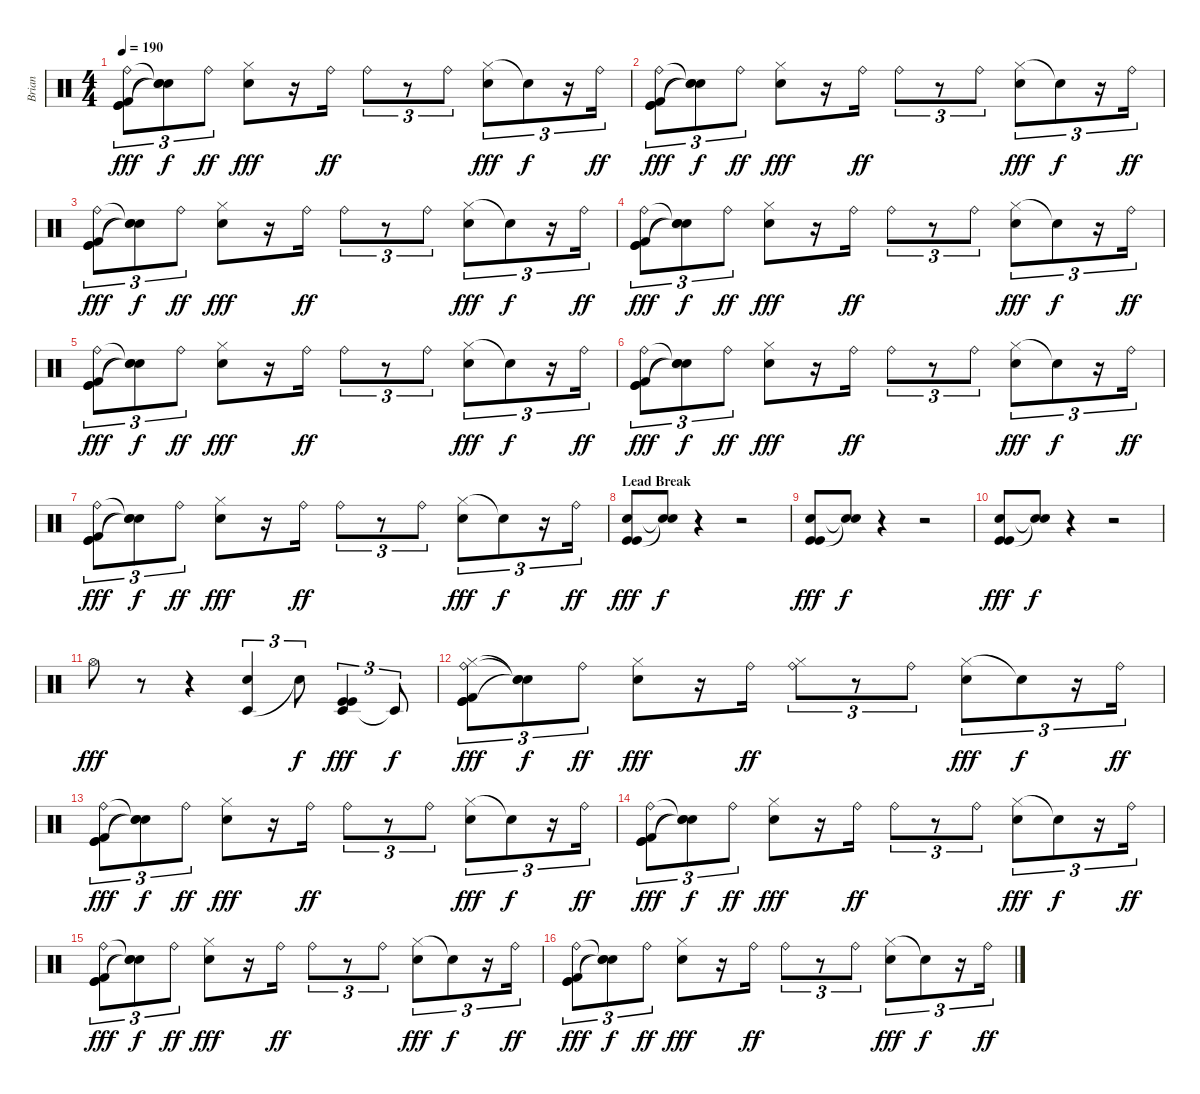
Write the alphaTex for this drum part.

\track ("Brian" "Brian") {instrument percussion}
\staff {score}
\articulation defaults
\ts (4 4)
\tempo 190
\clef neutral
\ks c
("Ride (bell)" "Kick (hit)" "Kick (hit) 2" "Kick (hit)").8{tu (3 2) dy fff} ("Snare (hit)"{t} "Snare (hit)"{t} "Snare (hit)"{t}).8{tu (3 2) dy f} "Ride (bell)".8{tu (3 2) dy ff} ("Hi-Hat (closed)" "Electric Snare (hit)").8{dy fff} r.16 "Ride (bell)".16{dy ff} "Ride (bell)".8{tu (3 2)} r.8{tu (3 2)} "Ride (bell)".8{tu (3 2)} ("Hi-Hat (closed)" "Electric Snare (hit)").8{tu (3 2) dy fff} "Snare (hit)"{t}.8{tu (3 2) dy f} r.16{tu (3 2)} "Ride (bell)".16{tu (3 2) dy ff} |
("Ride (bell)" "Kick (hit)" "Kick (hit) 2" "Kick (hit)").8{tu (3 2) dy fff} ("Snare (hit)"{t} "Snare (hit)"{t} "Snare (hit)"{t}).8{tu (3 2) dy f} "Ride (bell)".8{tu (3 2) dy ff} ("Hi-Hat (closed)" "Electric Snare (hit)").8{dy fff} r.16 "Ride (bell)".16{dy ff} "Ride (bell)".8{tu (3 2)} r.8{tu (3 2)} "Ride (bell)".8{tu (3 2)} ("Hi-Hat (closed)" "Electric Snare (hit)").8{tu (3 2) dy fff} "Snare (hit)"{t}.8{tu (3 2) dy f} r.16{tu (3 2)} "Ride (bell)".16{tu (3 2) dy ff} |
("Ride (bell)" "Kick (hit)" "Kick (hit) 2" "Kick (hit)").8{tu (3 2) dy fff} ("Snare (hit)"{t} "Snare (hit)"{t} "Snare (hit)"{t}).8{tu (3 2) dy f} "Ride (bell)".8{tu (3 2) dy ff} ("Hi-Hat (closed)" "Electric Snare (hit)").8{dy fff} r.16 "Ride (bell)".16{dy ff} "Ride (bell)".8{tu (3 2)} r.8{tu (3 2)} "Ride (bell)".8{tu (3 2)} ("Hi-Hat (closed)" "Electric Snare (hit)").8{tu (3 2) dy fff} "Snare (hit)"{t}.8{tu (3 2) dy f} r.16{tu (3 2)} "Ride (bell)".16{tu (3 2) dy ff} |
("Ride (bell)" "Kick (hit)" "Kick (hit) 2" "Kick (hit)").8{tu (3 2) dy fff} ("Snare (hit)"{t} "Snare (hit)"{t} "Snare (hit)"{t}).8{tu (3 2) dy f} "Ride (bell)".8{tu (3 2) dy ff} ("Hi-Hat (closed)" "Electric Snare (hit)").8{dy fff} r.16 "Ride (bell)".16{dy ff} "Ride (bell)".8{tu (3 2)} r.8{tu (3 2)} "Ride (bell)".8{tu (3 2)} ("Hi-Hat (closed)" "Electric Snare (hit)").8{tu (3 2) dy fff} "Snare (hit)"{t}.8{tu (3 2) dy f} r.16{tu (3 2)} "Ride (bell)".16{tu (3 2) dy ff} |
("Ride (bell)" "Kick (hit)" "Kick (hit) 2" "Kick (hit)").8{tu (3 2) dy fff} ("Snare (hit)"{t} "Snare (hit)"{t} "Snare (hit)"{t}).8{tu (3 2) dy f} "Ride (bell)".8{tu (3 2) dy ff} ("Hi-Hat (closed)" "Electric Snare (hit)").8{dy fff} r.16 "Ride (bell)".16{dy ff} "Ride (bell)".8{tu (3 2)} r.8{tu (3 2)} "Ride (bell)".8{tu (3 2)} ("Hi-Hat (closed)" "Electric Snare (hit)").8{tu (3 2) dy fff} "Snare (hit)"{t}.8{tu (3 2) dy f} r.16{tu (3 2)} "Ride (bell)".16{tu (3 2) dy ff} |
("Ride (bell)" "Kick (hit)" "Kick (hit) 2" "Kick (hit)").8{tu (3 2) dy fff} ("Snare (hit)"{t} "Snare (hit)"{t} "Snare (hit)"{t}).8{tu (3 2) dy f} "Ride (bell)".8{tu (3 2) dy ff} ("Hi-Hat (closed)" "Electric Snare (hit)").8{dy fff} r.16 "Ride (bell)".16{dy ff} "Ride (bell)".8{tu (3 2)} r.8{tu (3 2)} "Ride (bell)".8{tu (3 2)} ("Hi-Hat (closed)" "Electric Snare (hit)").8{tu (3 2) dy fff} "Snare (hit)"{t}.8{tu (3 2) dy f} r.16{tu (3 2)} "Ride (bell)".16{tu (3 2) dy ff} |
("Ride (bell)" "Kick (hit)" "Kick (hit) 2" "Kick (hit)").8{tu (3 2) dy fff} ("Snare (hit)"{t} "Snare (hit)"{t} "Snare (hit)"{t}).8{tu (3 2) dy f} "Ride (bell)".8{tu (3 2) dy ff} ("Hi-Hat (closed)" "Electric Snare (hit)").8{dy fff} r.16 "Ride (bell)".16{dy ff} "Ride (bell)".8{tu (3 2)} r.8{tu (3 2)} "Ride (bell)".8{tu (3 2)} ("Hi-Hat (closed)" "Electric Snare (hit)").8{tu (3 2) dy fff} "Snare (hit)"{t}.8{tu (3 2) dy f} r.16{tu (3 2)} "Ride (bell)".16{tu (3 2) dy ff} |
\section ("" "Lead Break")
("Electric Snare (hit)" "Kick (hit)" "Kick (hit)").8{dy fff} ("Snare (hit)"{t} "Snare (hit)"{t}).8{dy f} r.4 r.2 |
("Electric Snare (hit)" "Kick (hit)" "Kick (hit)").8{dy fff} ("Snare (hit)"{t} "Snare (hit)"{t}).8{dy f} r.4 r.2 |
("Electric Snare (hit)" "Kick (hit)" "Kick (hit)").8{dy fff} ("Snare (hit)"{t} "Snare (hit)"{t}).8{dy f} r.4 r.2 |
"Hi-Hat (open)".8{dy fff} r.8 r.4 ("Timbale low (hit)" "Electric Snare (hit)").4{tu (3 2)} "Snare (hit)"{t}.8{tu (3 2) dy f} ("Timbale low (hit)" "Kick (hit)" "Kick (hit)").4{tu (3 2) dy fff} "Timbale low (hit)"{t}.8{tu (3 2) dy f} |
("Ride (bell)" "Hi-Hat (closed)" "Kick (hit)" "Kick (hit) 2" "Kick (hit)").8{tu (3 2) dy fff} ("Snare (hit)"{t} "Snare (hit)"{t} "Snare (hit)"{t}).8{tu (3 2) dy f} "Ride (bell)".8{tu (3 2) dy ff} ("Hi-Hat (closed)" "Electric Snare (hit)").8{dy fff} r.16 "Ride (bell)".16{dy ff} ("Ride (bell)" "Hi-Hat (closed)").8{tu (3 2)} r.8{tu (3 2)} "Ride (bell)".8{tu (3 2)} ("Hi-Hat (closed)" "Electric Snare (hit)").8{tu (3 2) dy fff} "Snare (hit)"{t}.8{tu (3 2) dy f} r.16{tu (3 2)} "Ride (bell)".16{tu (3 2) dy ff} |
("Ride (bell)" "Kick (hit)" "Kick (hit) 2" "Kick (hit)").8{tu (3 2) dy fff} ("Snare (hit)"{t} "Snare (hit)"{t} "Snare (hit)"{t}).8{tu (3 2) dy f} "Ride (bell)".8{tu (3 2) dy ff} ("Hi-Hat (closed)" "Electric Snare (hit)").8{dy fff} r.16 "Ride (bell)".16{dy ff} "Ride (bell)".8{tu (3 2)} r.8{tu (3 2)} "Ride (bell)".8{tu (3 2)} ("Hi-Hat (closed)" "Electric Snare (hit)").8{tu (3 2) dy fff} "Snare (hit)"{t}.8{tu (3 2) dy f} r.16{tu (3 2)} "Ride (bell)".16{tu (3 2) dy ff} |
("Ride (bell)" "Kick (hit)" "Kick (hit) 2" "Kick (hit)").8{tu (3 2) dy fff} ("Snare (hit)"{t} "Snare (hit)"{t} "Snare (hit)"{t}).8{tu (3 2) dy f} "Ride (bell)".8{tu (3 2) dy ff} ("Hi-Hat (closed)" "Electric Snare (hit)").8{dy fff} r.16 "Ride (bell)".16{dy ff} "Ride (bell)".8{tu (3 2)} r.8{tu (3 2)} "Ride (bell)".8{tu (3 2)} ("Hi-Hat (closed)" "Electric Snare (hit)").8{tu (3 2) dy fff} "Snare (hit)"{t}.8{tu (3 2) dy f} r.16{tu (3 2)} "Ride (bell)".16{tu (3 2) dy ff} |
("Ride (bell)" "Kick (hit)" "Kick (hit) 2" "Kick (hit)").8{tu (3 2) dy fff} ("Snare (hit)"{t} "Snare (hit)"{t} "Snare (hit)"{t}).8{tu (3 2) dy f} "Ride (bell)".8{tu (3 2) dy ff} ("Hi-Hat (closed)" "Electric Snare (hit)").8{dy fff} r.16 "Ride (bell)".16{dy ff} "Ride (bell)".8{tu (3 2)} r.8{tu (3 2)} "Ride (bell)".8{tu (3 2)} ("Hi-Hat (closed)" "Electric Snare (hit)").8{tu (3 2) dy fff} "Snare (hit)"{t}.8{tu (3 2) dy f} r.16{tu (3 2)} "Ride (bell)".16{tu (3 2) dy ff} |
("Ride (bell)" "Kick (hit)" "Kick (hit) 2" "Kick (hit)").8{tu (3 2) dy fff} ("Snare (hit)"{t} "Snare (hit)"{t} "Snare (hit)"{t}).8{tu (3 2) dy f} "Ride (bell)".8{tu (3 2) dy ff} ("Hi-Hat (closed)" "Electric Snare (hit)").8{dy fff} r.16 "Ride (bell)".16{dy ff} "Ride (bell)".8{tu (3 2)} r.8{tu (3 2)} "Ride (bell)".8{tu (3 2)} ("Hi-Hat (closed)" "Electric Snare (hit)").8{tu (3 2) dy fff} "Snare (hit)"{t}.8{tu (3 2) dy f} r.16{tu (3 2)} "Ride (bell)".16{tu (3 2) dy ff}
